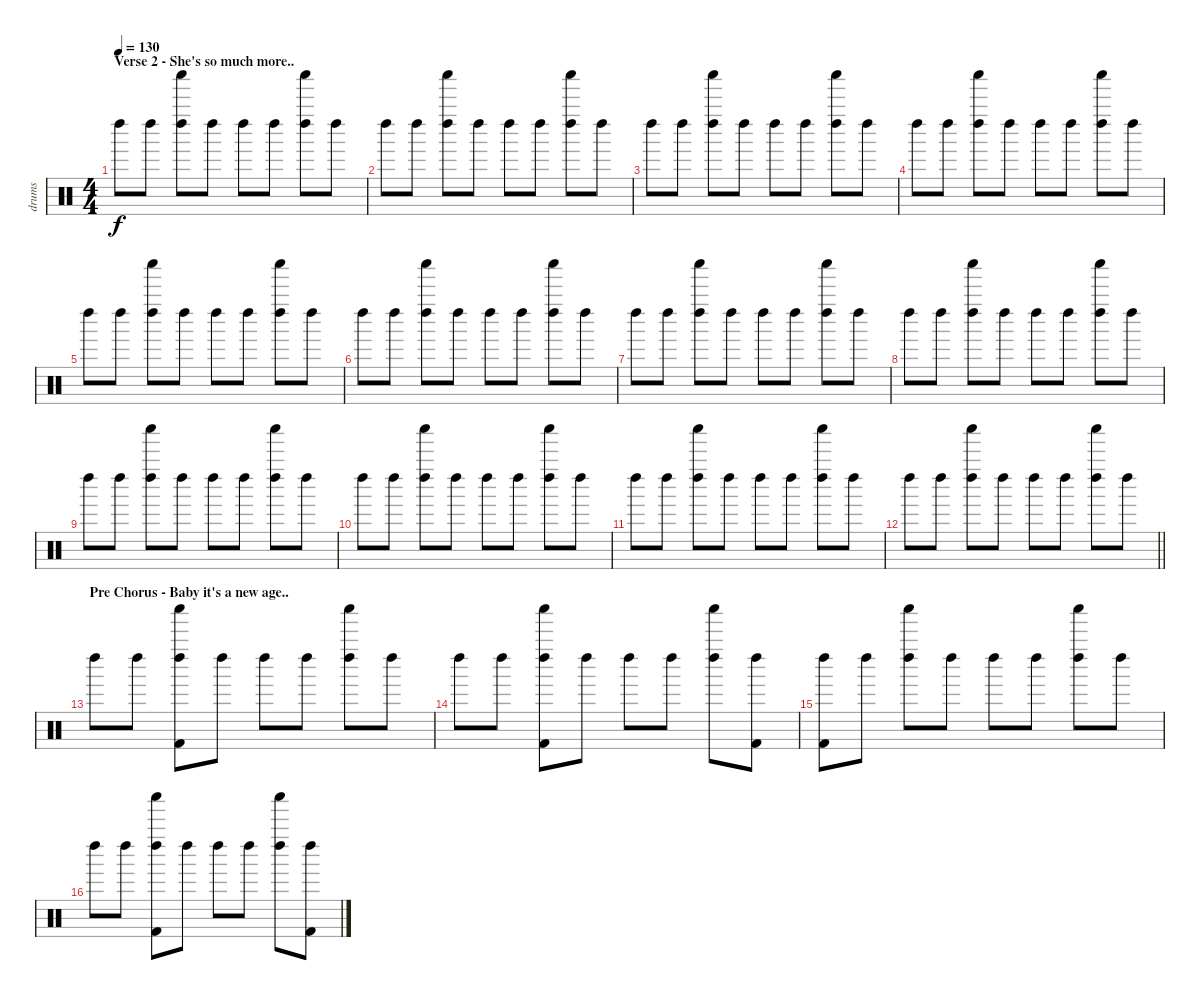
\track ("drums" "drums") {instrument percussion}
\staff {score}
\articulation defaults
\ts (4 4)
\section ("" "Verse 2 - She's so much more..")
\tempo 130
\clef neutral
\ks c "Left Maraca (hit)".8{dy f} "Left Maraca (hit)".8
("Left Maraca (hit)" "Shaker (hit)").8 "Left Maraca (hit)".8 "Left Maraca (hit)".8 "Left Maraca (hit)".8 ("Left Maraca (hit)" "Shaker (hit)").8 "Left Maraca (hit)".8 |
"Left Maraca (hit)".8 "Left Maraca (hit)".8 ("Left Maraca (hit)" "Shaker (hit)").8 "Left Maraca (hit)".8 "Left Maraca (hit)".8 "Left Maraca (hit)".8 ("Left Maraca (hit)" "Shaker (hit)").8 "Left Maraca (hit)".8 |
"Left Maraca (hit)".8 "Left Maraca (hit)".8 ("Left Maraca (hit)" "Shaker (hit)").8 "Left Maraca (hit)".8 "Left Maraca (hit)".8 "Left Maraca (hit)".8 ("Left Maraca (hit)" "Shaker (hit)").8 "Left Maraca (hit)".8 |
"Left Maraca (hit)".8 "Left Maraca (hit)".8 ("Left Maraca (hit)" "Shaker (hit)").8 "Left Maraca (hit)".8 "Left Maraca (hit)".8 "Left Maraca (hit)".8 ("Left Maraca (hit)" "Shaker (hit)").8 "Left Maraca (hit)".8 |
"Left Maraca (hit)".8 "Left Maraca (hit)".8 ("Left Maraca (hit)" "Shaker (hit)").8 "Left Maraca (hit)".8 "Left Maraca (hit)".8 "Left Maraca (hit)".8 ("Left Maraca (hit)" "Shaker (hit)").8 "Left Maraca (hit)".8 |
"Left Maraca (hit)".8 "Left Maraca (hit)".8 ("Left Maraca (hit)" "Shaker (hit)").8 "Left Maraca (hit)".8 "Left Maraca (hit)".8 "Left Maraca (hit)".8 ("Left Maraca (hit)" "Shaker (hit)").8 "Left Maraca (hit)".8 |
"Left Maraca (hit)".8 "Left Maraca (hit)".8 ("Left Maraca (hit)" "Shaker (hit)").8 "Left Maraca (hit)".8 "Left Maraca (hit)".8 "Left Maraca (hit)".8 ("Left Maraca (hit)" "Shaker (hit)").8 "Left Maraca (hit)".8 |
"Left Maraca (hit)".8 "Left Maraca (hit)".8 ("Left Maraca (hit)" "Shaker (hit)").8 "Left Maraca (hit)".8 "Left Maraca (hit)".8 "Left Maraca (hit)".8 ("Left Maraca (hit)" "Shaker (hit)").8 "Left Maraca (hit)".8 |
"Left Maraca (hit)".8 "Left Maraca (hit)".8 ("Left Maraca (hit)" "Shaker (hit)").8 "Left Maraca (hit)".8 "Left Maraca (hit)".8 "Left Maraca (hit)".8 ("Left Maraca (hit)" "Shaker (hit)").8 "Left Maraca (hit)".8 |
"Left Maraca (hit)".8 "Left Maraca (hit)".8 ("Left Maraca (hit)" "Shaker (hit)").8 "Left Maraca (hit)".8 "Left Maraca (hit)".8 "Left Maraca (hit)".8 ("Left Maraca (hit)" "Shaker (hit)").8 "Left Maraca (hit)".8 |
"Left Maraca (hit)".8 "Left Maraca (hit)".8 ("Left Maraca (hit)" "Shaker (hit)").8 "Left Maraca (hit)".8 "Left Maraca (hit)".8 "Left Maraca (hit)".8 ("Left Maraca (hit)" "Shaker (hit)").8 "Left Maraca (hit)".8 |
\barLineRight lightlight "Left Maraca (hit)".8 "Left Maraca (hit)".8
("Left Maraca (hit)" "Shaker (hit)").8 "Left Maraca (hit)".8 "Left Maraca (hit)".8 "Left Maraca (hit)".8 ("Left Maraca (hit)" "Shaker (hit)").8 "Left Maraca (hit)".8 |
\section ("" "Pre Chorus - Baby it's a new age..")
"Left Maraca (hit)".8 "Left Maraca (hit)".8 ("Left Maraca (hit)" "Shaker (hit)" "Kick (hit) 2").8 "Left Maraca (hit)".8 "Left Maraca (hit)".8 "Left Maraca (hit)".8 ("Left Maraca (hit)" "Shaker (hit)").8 "Left Maraca (hit)".8 |
"Left Maraca (hit)".8 "Left Maraca (hit)".8 ("Left Maraca (hit)" "Shaker (hit)" "Kick (hit) 2").8 "Left Maraca (hit)".8 "Left Maraca (hit)".8 "Left Maraca (hit)".8 ("Left Maraca (hit)" "Shaker (hit)").8 ("Left Maraca (hit)" "Kick (hit) 2").8 |
("Left Maraca (hit)" "Kick (hit) 2").8 "Left Maraca (hit)".8 ("Left Maraca (hit)" "Shaker (hit)").8 "Left Maraca (hit)".8 "Left Maraca (hit)".8 "Left Maraca (hit)".8 ("Left Maraca (hit)" "Shaker (hit)").8 "Left Maraca (hit)".8 |
"Left Maraca (hit)".8 "Left Maraca (hit)".8 ("Left Maraca (hit)" "Shaker (hit)" "Kick (hit) 2").8 "Left Maraca (hit)".8 "Left Maraca (hit)".8 "Left Maraca (hit)".8 ("Left Maraca (hit)" "Shaker (hit)").8 ("Left Maraca (hit)" "Kick (hit) 2").8
